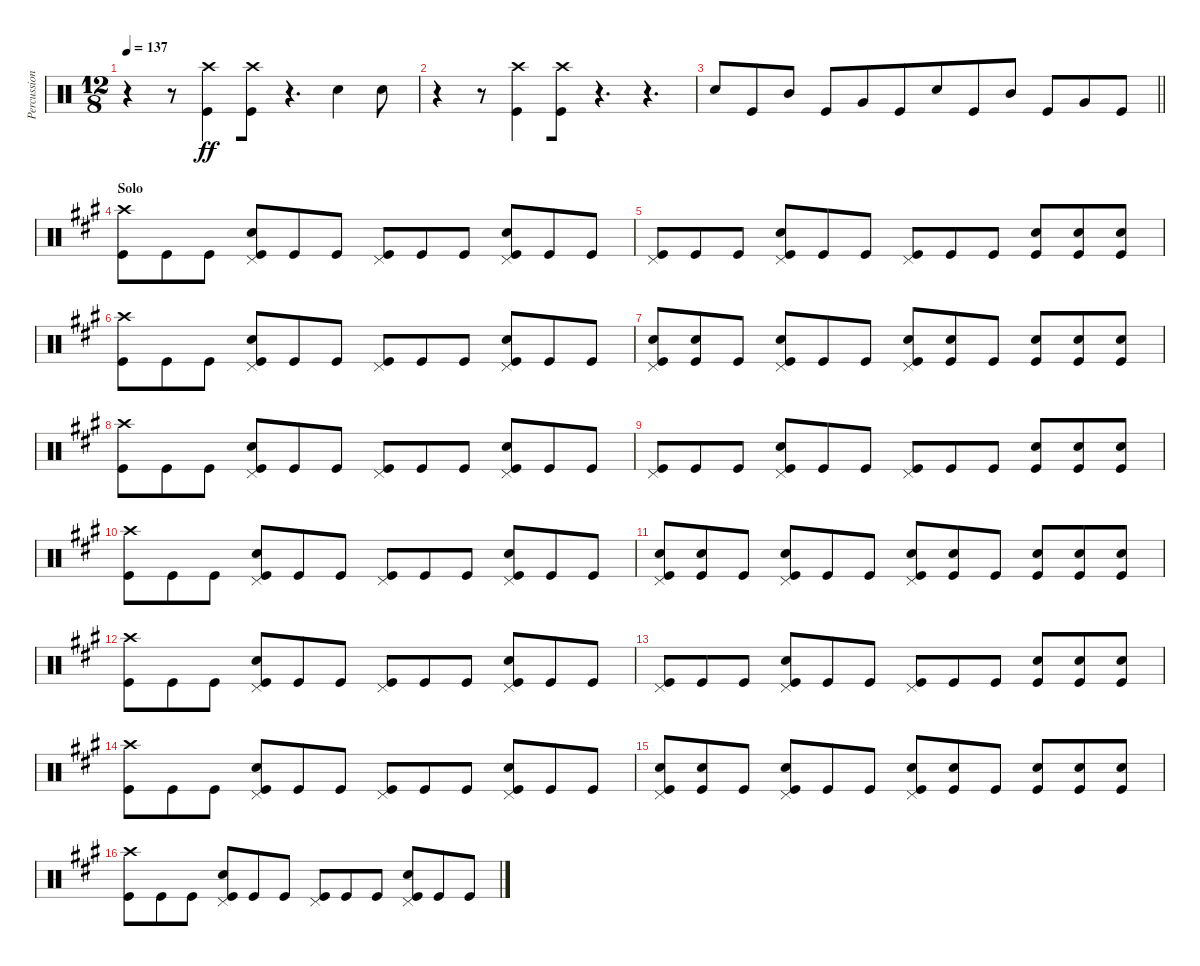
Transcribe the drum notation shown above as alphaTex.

\track ("Percussion" "Percussion") {instrument percussion bank 255}
\staff {score}
\articulation defaults
\ts (12 8)
\tempo 137
\clef neutral
\ks c
r.4{dy ff} r.8{beam merge} ("Kick (hit)" "Crash high (hit)").4{beam merge} ("Kick (hit)" "Crash high (hit)").8 r.4{d} "Electric Snare (hit)".4 "Electric Snare (hit)".8 |
r.4 r.8{beam merge} ("Kick (hit)" "Crash high (hit)").4{beam merge} ("Kick (hit)" "Crash high (hit)").8 r.4{d} r.4{d} |
\barLineRight lightlight "Electric Snare (hit)".8 "Kick (hit)".8 "Mid Tom (hit)".8 "Kick (hit)".8 "Very Low Tom (hit)".8{beam merge} "Kick (hit)".8{beam merge} "Electric Snare (hit)".8 "Kick (hit)".8 "Mid Tom (hit)".8 "Kick (hit)".8 "Very Low Tom (hit)".8{beam merge} "Kick (hit)".8
|
\section ("" "Solo")
\ks a
("Kick (hit)" "Crash high (hit)").8 "Kick (hit)".8 "Kick (hit)".8 ("Kick (hit)" "Electric Snare (hit)" "Pedal Hi-Hat (hit)").8{beam merge} "Kick (hit)".8 "Kick (hit)".8 ("Kick (hit)" "Pedal Hi-Hat (hit)").8 "Kick (hit)".8 "Kick (hit)".8 ("Kick (hit)" "Electric Snare (hit)" "Pedal Hi-Hat (hit)").8 "Kick (hit)".8 "Kick (hit)".8 |
("Kick (hit)" "Pedal Hi-Hat (hit)").8 "Kick (hit)".8 "Kick (hit)".8 ("Kick (hit)" "Electric Snare (hit)" "Pedal Hi-Hat (hit)").8{beam merge} "Kick (hit)".8 "Kick (hit)".8 ("Kick (hit)" "Pedal Hi-Hat (hit)").8 "Kick (hit)".8 "Kick (hit)".8 ("Kick (hit)" "Electric Snare (hit)").8 ("Kick (hit)" "Electric Snare (hit)").8 ("Kick (hit)" "Electric Snare (hit)").8 |
("Kick (hit)" "Crash high (hit)").8 "Kick (hit)".8 "Kick (hit)".8 ("Kick (hit)" "Electric Snare (hit)" "Pedal Hi-Hat (hit)").8{beam merge} "Kick (hit)".8 "Kick (hit)".8 ("Kick (hit)" "Pedal Hi-Hat (hit)").8 "Kick (hit)".8 "Kick (hit)".8 ("Kick (hit)" "Electric Snare (hit)" "Pedal Hi-Hat (hit)").8 "Kick (hit)".8 "Kick (hit)".8 |
("Kick (hit)" "Pedal Hi-Hat (hit)" "Electric Snare (hit)").8 ("Kick (hit)" "Electric Snare (hit)").8 "Kick (hit)".8 ("Kick (hit)" "Electric Snare (hit)" "Pedal Hi-Hat (hit)").8{beam merge} "Kick (hit)".8 "Kick (hit)".8 ("Kick (hit)" "Pedal Hi-Hat (hit)" "Electric Snare (hit)").8 ("Kick (hit)" "Electric Snare (hit)").8 "Kick (hit)".8 ("Kick (hit)" "Electric Snare (hit)").8 ("Kick (hit)" "Electric Snare (hit)").8 ("Kick (hit)" "Electric Snare (hit)").8 |
("Kick (hit)" "Crash high (hit)").8 "Kick (hit)".8 "Kick (hit)".8 ("Kick (hit)" "Electric Snare (hit)" "Pedal Hi-Hat (hit)").8{beam merge} "Kick (hit)".8 "Kick (hit)".8 ("Kick (hit)" "Pedal Hi-Hat (hit)").8 "Kick (hit)".8 "Kick (hit)".8 ("Kick (hit)" "Electric Snare (hit)" "Pedal Hi-Hat (hit)").8 "Kick (hit)".8 "Kick (hit)".8 |
("Kick (hit)" "Pedal Hi-Hat (hit)").8 "Kick (hit)".8 "Kick (hit)".8 ("Kick (hit)" "Electric Snare (hit)" "Pedal Hi-Hat (hit)").8{beam merge} "Kick (hit)".8 "Kick (hit)".8 ("Kick (hit)" "Pedal Hi-Hat (hit)").8 "Kick (hit)".8 "Kick (hit)".8 ("Kick (hit)" "Electric Snare (hit)").8 ("Kick (hit)" "Electric Snare (hit)").8 ("Kick (hit)" "Electric Snare (hit)").8 |
("Kick (hit)" "Crash high (hit)").8 "Kick (hit)".8 "Kick (hit)".8 ("Kick (hit)" "Electric Snare (hit)" "Pedal Hi-Hat (hit)").8{beam merge} "Kick (hit)".8 "Kick (hit)".8 ("Kick (hit)" "Pedal Hi-Hat (hit)").8 "Kick (hit)".8 "Kick (hit)".8 ("Kick (hit)" "Electric Snare (hit)" "Pedal Hi-Hat (hit)").8 "Kick (hit)".8 "Kick (hit)".8 |
("Kick (hit)" "Pedal Hi-Hat (hit)" "Electric Snare (hit)").8 ("Kick (hit)" "Electric Snare (hit)").8 "Kick (hit)".8 ("Kick (hit)" "Electric Snare (hit)" "Pedal Hi-Hat (hit)").8{beam merge} "Kick (hit)".8 "Kick (hit)".8 ("Kick (hit)" "Pedal Hi-Hat (hit)" "Electric Snare (hit)").8 ("Kick (hit)" "Electric Snare (hit)").8 "Kick (hit)".8 ("Kick (hit)" "Electric Snare (hit)").8 ("Kick (hit)" "Electric Snare (hit)").8 ("Kick (hit)" "Electric Snare (hit)").8 |
("Kick (hit)" "Crash high (hit)").8 "Kick (hit)".8 "Kick (hit)".8 ("Kick (hit)" "Electric Snare (hit)" "Pedal Hi-Hat (hit)").8{beam merge} "Kick (hit)".8 "Kick (hit)".8 ("Kick (hit)" "Pedal Hi-Hat (hit)").8 "Kick (hit)".8 "Kick (hit)".8 ("Kick (hit)" "Electric Snare (hit)" "Pedal Hi-Hat (hit)").8 "Kick (hit)".8 "Kick (hit)".8 |
("Kick (hit)" "Pedal Hi-Hat (hit)").8 "Kick (hit)".8 "Kick (hit)".8 ("Kick (hit)" "Electric Snare (hit)" "Pedal Hi-Hat (hit)").8{beam merge} "Kick (hit)".8 "Kick (hit)".8 ("Kick (hit)" "Pedal Hi-Hat (hit)").8 "Kick (hit)".8 "Kick (hit)".8 ("Kick (hit)" "Electric Snare (hit)").8 ("Kick (hit)" "Electric Snare (hit)").8 ("Kick (hit)" "Electric Snare (hit)").8 |
("Kick (hit)" "Crash high (hit)").8 "Kick (hit)".8 "Kick (hit)".8 ("Kick (hit)" "Electric Snare (hit)" "Pedal Hi-Hat (hit)").8{beam merge} "Kick (hit)".8 "Kick (hit)".8 ("Kick (hit)" "Pedal Hi-Hat (hit)").8 "Kick (hit)".8 "Kick (hit)".8 ("Kick (hit)" "Electric Snare (hit)" "Pedal Hi-Hat (hit)").8 "Kick (hit)".8 "Kick (hit)".8 |
("Kick (hit)" "Pedal Hi-Hat (hit)" "Electric Snare (hit)").8 ("Kick (hit)" "Electric Snare (hit)").8 "Kick (hit)".8 ("Kick (hit)" "Electric Snare (hit)" "Pedal Hi-Hat (hit)").8{beam merge} "Kick (hit)".8 "Kick (hit)".8 ("Kick (hit)" "Pedal Hi-Hat (hit)" "Electric Snare (hit)").8 ("Kick (hit)" "Electric Snare (hit)").8 "Kick (hit)".8 ("Kick (hit)" "Electric Snare (hit)").8 ("Kick (hit)" "Electric Snare (hit)").8 ("Kick (hit)" "Electric Snare (hit)").8 |
("Kick (hit)" "Crash high (hit)").8 "Kick (hit)".8 "Kick (hit)".8 ("Kick (hit)" "Electric Snare (hit)" "Pedal Hi-Hat (hit)").8{beam merge} "Kick (hit)".8 "Kick (hit)".8 ("Kick (hit)" "Pedal Hi-Hat (hit)").8 "Kick (hit)".8 "Kick (hit)".8 ("Kick (hit)" "Electric Snare (hit)" "Pedal Hi-Hat (hit)").8 "Kick (hit)".8 "Kick (hit)".8
